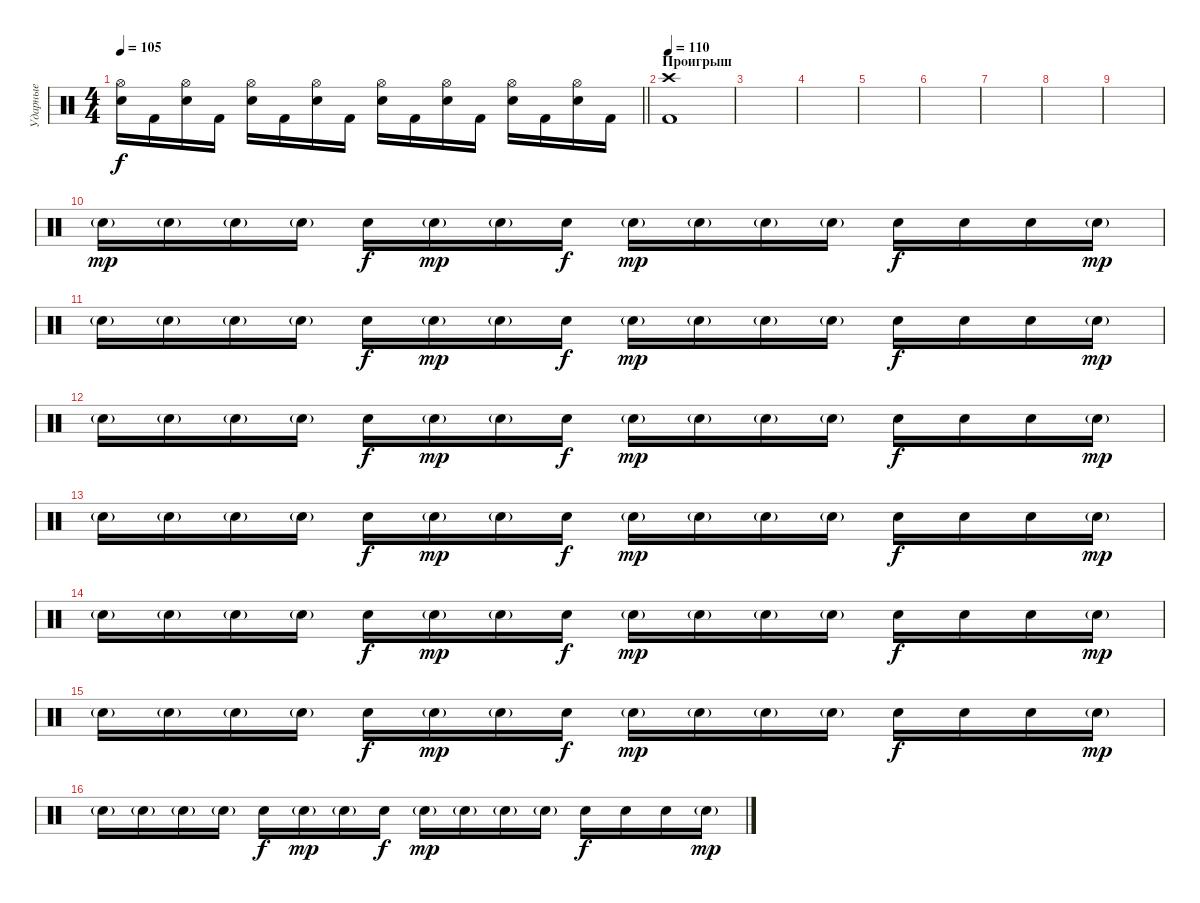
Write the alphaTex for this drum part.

\track ("Ударные" "Ударные") {instrument percussion}
\staff {score}
\articulation defaults
\ts (4 4)
\tempo 105
\clef neutral
\barLineRight lightlight
\ks c
("Hi-Hat (open)" "Electric Snare (hit)").16{dy f} "Kick (hit) 2".16 ("Hi-Hat (open)" "Electric Snare (hit)").16 "Kick (hit) 2".16 ("Hi-Hat (open)" "Electric Snare (hit)").16 "Kick (hit) 2".16 ("Hi-Hat (open)" "Electric Snare (hit)").16 "Kick (hit) 2".16 ("Hi-Hat (open)" "Electric Snare (hit)").16 "Kick (hit) 2".16 ("Hi-Hat (open)" "Electric Snare (hit)").16 "Kick (hit) 2".16 ("Hi-Hat (open)" "Electric Snare (hit)").16 "Kick (hit) 2".16 ("Hi-Hat (open)" "Electric Snare (hit)").16 "Kick (hit) 2".16 |
\section ("" "Проигрыш")
\tempo 110
("Crash high (hit)" "Kick (hit) 2").1 |
|
|
|
|
|
|
|
"Electric Snare (hit)"{g}.16{dy mp} "Electric Snare (hit)"{g}.16 "Electric Snare (hit)"{g}.16 "Electric Snare (hit)"{g}.16 "Electric Snare (hit)".16{dy f} "Electric Snare (hit)"{g}.16{dy mp} "Electric Snare (hit)"{g}.16 "Electric Snare (hit)".16{dy f} "Electric Snare (hit)"{g}.16{dy mp} "Electric Snare (hit)"{g}.16 "Electric Snare (hit)"{g}.16 "Electric Snare (hit)"{g}.16 "Electric Snare (hit)".16{dy f} "Electric Snare (hit)".16 "Electric Snare (hit)".16 "Electric Snare (hit)"{g}.16{dy mp} |
"Electric Snare (hit)"{g}.16 "Electric Snare (hit)"{g}.16 "Electric Snare (hit)"{g}.16 "Electric Snare (hit)"{g}.16 "Electric Snare (hit)".16{dy f} "Electric Snare (hit)"{g}.16{dy mp} "Electric Snare (hit)"{g}.16 "Electric Snare (hit)".16{dy f} "Electric Snare (hit)"{g}.16{dy mp} "Electric Snare (hit)"{g}.16 "Electric Snare (hit)"{g}.16 "Electric Snare (hit)"{g}.16 "Electric Snare (hit)".16{dy f} "Electric Snare (hit)".16 "Electric Snare (hit)".16 "Electric Snare (hit)"{g}.16{dy mp} |
"Electric Snare (hit)"{g}.16 "Electric Snare (hit)"{g}.16 "Electric Snare (hit)"{g}.16 "Electric Snare (hit)"{g}.16 "Electric Snare (hit)".16{dy f} "Electric Snare (hit)"{g}.16{dy mp} "Electric Snare (hit)"{g}.16 "Electric Snare (hit)".16{dy f} "Electric Snare (hit)"{g}.16{dy mp} "Electric Snare (hit)"{g}.16 "Electric Snare (hit)"{g}.16 "Electric Snare (hit)"{g}.16 "Electric Snare (hit)".16{dy f} "Electric Snare (hit)".16 "Electric Snare (hit)".16 "Electric Snare (hit)"{g}.16{dy mp} |
"Electric Snare (hit)"{g}.16 "Electric Snare (hit)"{g}.16 "Electric Snare (hit)"{g}.16 "Electric Snare (hit)"{g}.16 "Electric Snare (hit)".16{dy f} "Electric Snare (hit)"{g}.16{dy mp} "Electric Snare (hit)"{g}.16 "Electric Snare (hit)".16{dy f} "Electric Snare (hit)"{g}.16{dy mp} "Electric Snare (hit)"{g}.16 "Electric Snare (hit)"{g}.16 "Electric Snare (hit)"{g}.16 "Electric Snare (hit)".16{dy f} "Electric Snare (hit)".16 "Electric Snare (hit)".16 "Electric Snare (hit)"{g}.16{dy mp} |
"Electric Snare (hit)"{g}.16 "Electric Snare (hit)"{g}.16 "Electric Snare (hit)"{g}.16 "Electric Snare (hit)"{g}.16 "Electric Snare (hit)".16{dy f} "Electric Snare (hit)"{g}.16{dy mp} "Electric Snare (hit)"{g}.16 "Electric Snare (hit)".16{dy f} "Electric Snare (hit)"{g}.16{dy mp} "Electric Snare (hit)"{g}.16 "Electric Snare (hit)"{g}.16 "Electric Snare (hit)"{g}.16 "Electric Snare (hit)".16{dy f} "Electric Snare (hit)".16 "Electric Snare (hit)".16 "Electric Snare (hit)"{g}.16{dy mp} |
"Electric Snare (hit)"{g}.16 "Electric Snare (hit)"{g}.16 "Electric Snare (hit)"{g}.16 "Electric Snare (hit)"{g}.16 "Electric Snare (hit)".16{dy f} "Electric Snare (hit)"{g}.16{dy mp} "Electric Snare (hit)"{g}.16 "Electric Snare (hit)".16{dy f} "Electric Snare (hit)"{g}.16{dy mp} "Electric Snare (hit)"{g}.16 "Electric Snare (hit)"{g}.16 "Electric Snare (hit)"{g}.16 "Electric Snare (hit)".16{dy f} "Electric Snare (hit)".16 "Electric Snare (hit)".16 "Electric Snare (hit)"{g}.16{dy mp} |
"Electric Snare (hit)"{g}.16 "Electric Snare (hit)"{g}.16 "Electric Snare (hit)"{g}.16 "Electric Snare (hit)"{g}.16 "Electric Snare (hit)".16{dy f} "Electric Snare (hit)"{g}.16{dy mp} "Electric Snare (hit)"{g}.16 "Electric Snare (hit)".16{dy f} "Electric Snare (hit)"{g}.16{dy mp} "Electric Snare (hit)"{g}.16 "Electric Snare (hit)"{g}.16 "Electric Snare (hit)"{g}.16 "Electric Snare (hit)".16{dy f} "Electric Snare (hit)".16 "Electric Snare (hit)".16 "Electric Snare (hit)"{g}.16{dy mp}
